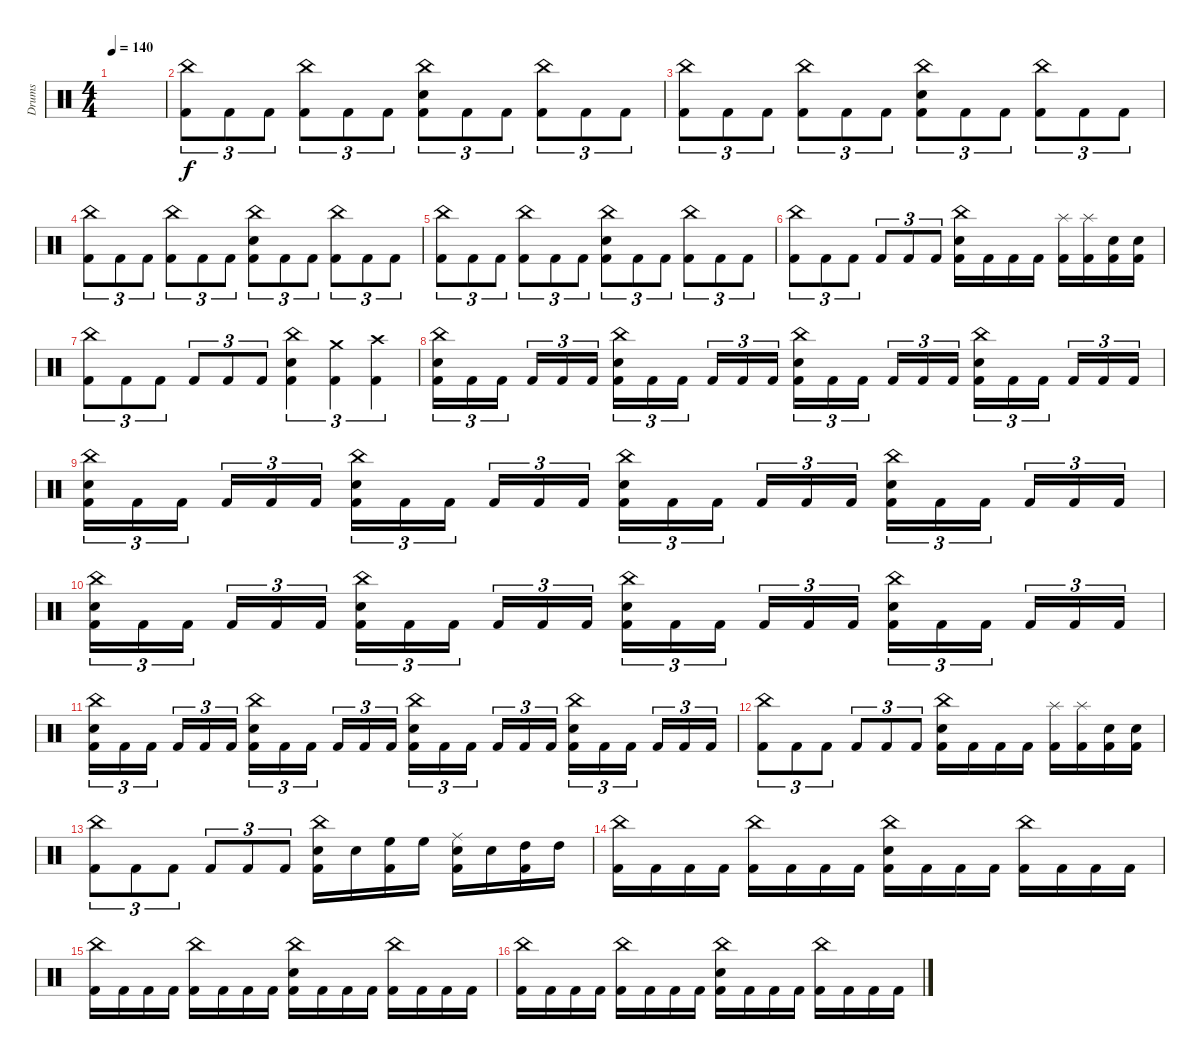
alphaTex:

\track ("Drums" "Drums") {instrument percussion}
\staff {score}
\articulation defaults
\ts (4 4)
\tempo 140
\clef neutral
\ks c
|
("China (hit)" "Kick (hit) 2").8{tu (3 2)} "Kick (hit) 2".8{tu (3 2)} "Kick (hit) 2".8{tu (3 2)} ("China (hit)" "Kick (hit) 2").8{tu (3 2)} "Kick (hit) 2".8{tu (3 2)} "Kick (hit) 2".8{tu (3 2)} ("China (hit)" "Snare (hit) 2" "Kick (hit) 2").8{tu (3 2)} "Kick (hit) 2".8{tu (3 2)} "Kick (hit) 2".8{tu (3 2)} ("China (hit)" "Kick (hit) 2").8{tu (3 2)} "Kick (hit) 2".8{tu (3 2)} "Kick (hit) 2".8{tu (3 2)} |
("China (hit)" "Kick (hit) 2").8{tu (3 2)} "Kick (hit) 2".8{tu (3 2)} "Kick (hit) 2".8{tu (3 2)} ("China (hit)" "Kick (hit) 2").8{tu (3 2)} "Kick (hit) 2".8{tu (3 2)} "Kick (hit) 2".8{tu (3 2)} ("China (hit)" "Snare (hit) 2" "Kick (hit) 2").8{tu (3 2)} "Kick (hit) 2".8{tu (3 2)} "Kick (hit) 2".8{tu (3 2)} ("China (hit)" "Kick (hit) 2").8{tu (3 2)} "Kick (hit) 2".8{tu (3 2)} "Kick (hit) 2".8{tu (3 2)} |
("China (hit)" "Kick (hit) 2").8{tu (3 2)} "Kick (hit) 2".8{tu (3 2)} "Kick (hit) 2".8{tu (3 2)} ("China (hit)" "Kick (hit) 2").8{tu (3 2)} "Kick (hit) 2".8{tu (3 2)} "Kick (hit) 2".8{tu (3 2)} ("China (hit)" "Snare (hit) 2" "Kick (hit) 2").8{tu (3 2)} "Kick (hit) 2".8{tu (3 2)} "Kick (hit) 2".8{tu (3 2)} ("China (hit)" "Kick (hit) 2").8{tu (3 2)} "Kick (hit) 2".8{tu (3 2)} "Kick (hit) 2".8{tu (3 2)} |
("China (hit)" "Kick (hit) 2").8{tu (3 2)} "Kick (hit) 2".8{tu (3 2)} "Kick (hit) 2".8{tu (3 2)} ("China (hit)" "Kick (hit) 2").8{tu (3 2)} "Kick (hit) 2".8{tu (3 2)} "Kick (hit) 2".8{tu (3 2)} ("China (hit)" "Snare (hit) 2" "Kick (hit) 2").8{tu (3 2)} "Kick (hit) 2".8{tu (3 2)} "Kick (hit) 2".8{tu (3 2)} ("China (hit)" "Kick (hit) 2").8{tu (3 2)} "Kick (hit) 2".8{tu (3 2)} "Kick (hit) 2".8{tu (3 2)} |
("China (hit)" "Kick (hit) 2").8{tu (3 2)} "Kick (hit) 2".8{tu (3 2)} "Kick (hit) 2".8{tu (3 2)} "Kick (hit) 2".8{tu (3 2)} "Kick (hit) 2".8{tu (3 2)} "Kick (hit) 2".8{tu (3 2)} ("China (hit)" "Snare (hit) 2" "Kick (hit) 2").16 "Kick (hit) 2".16 "Kick (hit) 2".16 "Kick (hit) 2".16 ("Splash (hit)" "Kick (hit) 2").16 ("Splash (hit)" "Kick (hit) 2").16 ("Snare (hit) 2" "Kick (hit) 2").16 ("Snare (hit) 2" "Kick (hit) 2").16 |
("China (hit)" "Kick (hit) 2").8{tu (3 2)} "Kick (hit) 2".8{tu (3 2)} "Kick (hit) 2".8{tu (3 2)} "Kick (hit) 2".8{tu (3 2)} "Kick (hit) 2".8{tu (3 2)} "Kick (hit) 2".8{tu (3 2)} ("China (hit)" "Snare (hit) 2" "Kick (hit) 2").4{tu (3 2)} ("Crash medium (hit)" "Kick (hit) 2").4{tu (3 2)} ("Crash high (hit)" "Kick (hit) 2").4{tu (3 2)} |
("China (hit)" "Snare (hit) 2" "Kick (hit) 2").16{tu (3 2)} "Kick (hit) 2".16{tu (3 2)} "Kick (hit) 2".16{tu (3 2) beam splitsecondary} "Kick (hit) 2".16{tu (3 2)} "Kick (hit) 2".16{tu (3 2)} "Kick (hit) 2".16{tu (3 2)} ("China (hit)" "Snare (hit) 2" "Kick (hit) 2").16{tu (3 2)} "Kick (hit) 2".16{tu (3 2)} "Kick (hit) 2".16{tu (3 2) beam splitsecondary} "Kick (hit) 2".16{tu (3 2)} "Kick (hit) 2".16{tu (3 2)} "Kick (hit) 2".16{tu (3 2)} ("China (hit)" "Snare (hit) 2" "Kick (hit) 2").16{tu (3 2)} "Kick (hit) 2".16{tu (3 2)} "Kick (hit) 2".16{tu (3 2) beam splitsecondary} "Kick (hit) 2".16{tu (3 2)} "Kick (hit) 2".16{tu (3 2)} "Kick (hit) 2".16{tu (3 2)} ("China (hit)" "Snare (hit) 2" "Kick (hit) 2").16{tu (3 2)} "Kick (hit) 2".16{tu (3 2)} "Kick (hit) 2".16{tu (3 2) beam splitsecondary} "Kick (hit) 2".16{tu (3 2)} "Kick (hit) 2".16{tu (3 2)} "Kick (hit) 2".16{tu (3 2)} |
("China (hit)" "Snare (hit) 2" "Kick (hit) 2").16{tu (3 2)} "Kick (hit) 2".16{tu (3 2)} "Kick (hit) 2".16{tu (3 2) beam splitsecondary} "Kick (hit) 2".16{tu (3 2)} "Kick (hit) 2".16{tu (3 2)} "Kick (hit) 2".16{tu (3 2)} ("China (hit)" "Snare (hit) 2" "Kick (hit) 2").16{tu (3 2)} "Kick (hit) 2".16{tu (3 2)} "Kick (hit) 2".16{tu (3 2) beam splitsecondary} "Kick (hit) 2".16{tu (3 2)} "Kick (hit) 2".16{tu (3 2)} "Kick (hit) 2".16{tu (3 2)} ("China (hit)" "Snare (hit) 2" "Kick (hit) 2").16{tu (3 2)} "Kick (hit) 2".16{tu (3 2)} "Kick (hit) 2".16{tu (3 2) beam splitsecondary} "Kick (hit) 2".16{tu (3 2)} "Kick (hit) 2".16{tu (3 2)} "Kick (hit) 2".16{tu (3 2)} ("China (hit)" "Snare (hit) 2" "Kick (hit) 2").16{tu (3 2)} "Kick (hit) 2".16{tu (3 2)} "Kick (hit) 2".16{tu (3 2) beam splitsecondary} "Kick (hit) 2".16{tu (3 2)} "Kick (hit) 2".16{tu (3 2)} "Kick (hit) 2".16{tu (3 2)} |
("China (hit)" "Snare (hit) 2" "Kick (hit) 2").16{tu (3 2)} "Kick (hit) 2".16{tu (3 2)} "Kick (hit) 2".16{tu (3 2) beam splitsecondary} "Kick (hit) 2".16{tu (3 2)} "Kick (hit) 2".16{tu (3 2)} "Kick (hit) 2".16{tu (3 2)} ("China (hit)" "Snare (hit) 2" "Kick (hit) 2").16{tu (3 2)} "Kick (hit) 2".16{tu (3 2)} "Kick (hit) 2".16{tu (3 2) beam splitsecondary} "Kick (hit) 2".16{tu (3 2)} "Kick (hit) 2".16{tu (3 2)} "Kick (hit) 2".16{tu (3 2)} ("China (hit)" "Snare (hit) 2" "Kick (hit) 2").16{tu (3 2)} "Kick (hit) 2".16{tu (3 2)} "Kick (hit) 2".16{tu (3 2) beam splitsecondary} "Kick (hit) 2".16{tu (3 2)} "Kick (hit) 2".16{tu (3 2)} "Kick (hit) 2".16{tu (3 2)} ("China (hit)" "Snare (hit) 2" "Kick (hit) 2").16{tu (3 2)} "Kick (hit) 2".16{tu (3 2)} "Kick (hit) 2".16{tu (3 2) beam splitsecondary} "Kick (hit) 2".16{tu (3 2)} "Kick (hit) 2".16{tu (3 2)} "Kick (hit) 2".16{tu (3 2)} |
("China (hit)" "Snare (hit) 2" "Kick (hit) 2").16{tu (3 2)} "Kick (hit) 2".16{tu (3 2)} "Kick (hit) 2".16{tu (3 2) beam splitsecondary} "Kick (hit) 2".16{tu (3 2)} "Kick (hit) 2".16{tu (3 2)} "Kick (hit) 2".16{tu (3 2)} ("China (hit)" "Snare (hit) 2" "Kick (hit) 2").16{tu (3 2)} "Kick (hit) 2".16{tu (3 2)} "Kick (hit) 2".16{tu (3 2) beam splitsecondary} "Kick (hit) 2".16{tu (3 2)} "Kick (hit) 2".16{tu (3 2)} "Kick (hit) 2".16{tu (3 2)} ("China (hit)" "Snare (hit) 2" "Kick (hit) 2").16{tu (3 2)} "Kick (hit) 2".16{tu (3 2)} "Kick (hit) 2".16{tu (3 2) beam splitsecondary} "Kick (hit) 2".16{tu (3 2)} "Kick (hit) 2".16{tu (3 2)} "Kick (hit) 2".16{tu (3 2)} ("China (hit)" "Snare (hit) 2" "Kick (hit) 2").16{tu (3 2)} "Kick (hit) 2".16{tu (3 2)} "Kick (hit) 2".16{tu (3 2) beam splitsecondary} "Kick (hit) 2".16{tu (3 2)} "Kick (hit) 2".16{tu (3 2)} "Kick (hit) 2".16{tu (3 2)} |
("China (hit)" "Kick (hit) 2").8{tu (3 2)} "Kick (hit) 2".8{tu (3 2)} "Kick (hit) 2".8{tu (3 2)} "Kick (hit) 2".8{tu (3 2)} "Kick (hit) 2".8{tu (3 2)} "Kick (hit) 2".8{tu (3 2)} ("China (hit)" "Snare (hit) 2" "Kick (hit) 2").16 "Kick (hit) 2".16 "Kick (hit) 2".16 "Kick (hit) 2".16 ("Splash (hit)" "Kick (hit) 2").16 ("Splash (hit)" "Kick (hit) 2").16 ("Snare (hit) 2" "Kick (hit) 2").16 ("Snare (hit) 2" "Kick (hit) 2").16 |
("China (hit)" "Kick (hit) 2").8{tu (3 2)} "Kick (hit) 2".8{tu (3 2)} "Kick (hit) 2".8{tu (3 2)} "Kick (hit) 2".8{tu (3 2)} "Kick (hit) 2".8{tu (3 2)} "Kick (hit) 2".8{tu (3 2)} ("China (hit)" "Snare (hit) 2" "Kick (hit) 2").16 "Snare (hit) 2".16 ("High Floor Tom (hit)" "Kick (hit) 2").16 "High Floor Tom (hit)".16 ("Ride (middle)" "Snare (hit) 2" "Kick (hit) 2").16 "Snare (hit) 2".16 ("High Tom (hit)" "Kick (hit) 2").16 "High Tom (hit)".16 |
("China (hit)" "Kick (hit) 2").16 "Kick (hit) 2".16 "Kick (hit) 2".16 "Kick (hit) 2".16 ("China (hit)" "Kick (hit) 2").16 "Kick (hit) 2".16 "Kick (hit) 2".16 "Kick (hit) 2".16 ("China (hit)" "Snare (hit) 2" "Kick (hit) 2").16 "Kick (hit) 2".16 "Kick (hit) 2".16 "Kick (hit) 2".16 ("China (hit)" "Kick (hit) 2").16 "Kick (hit) 2".16 "Kick (hit) 2".16 "Kick (hit) 2".16 |
("China (hit)" "Kick (hit) 2").16 "Kick (hit) 2".16 "Kick (hit) 2".16 "Kick (hit) 2".16 ("China (hit)" "Kick (hit) 2").16 "Kick (hit) 2".16 "Kick (hit) 2".16 "Kick (hit) 2".16 ("China (hit)" "Snare (hit) 2" "Kick (hit) 2").16 "Kick (hit) 2".16 "Kick (hit) 2".16 "Kick (hit) 2".16 ("China (hit)" "Kick (hit) 2").16 "Kick (hit) 2".16 "Kick (hit) 2".16 "Kick (hit) 2".16 |
("China (hit)" "Kick (hit) 2").16 "Kick (hit) 2".16 "Kick (hit) 2".16 "Kick (hit) 2".16 ("China (hit)" "Kick (hit) 2").16 "Kick (hit) 2".16 "Kick (hit) 2".16 "Kick (hit) 2".16 ("China (hit)" "Snare (hit) 2" "Kick (hit) 2").16 "Kick (hit) 2".16 "Kick (hit) 2".16 "Kick (hit) 2".16 ("China (hit)" "Kick (hit) 2").16 "Kick (hit) 2".16 "Kick (hit) 2".16 "Kick (hit) 2".16
